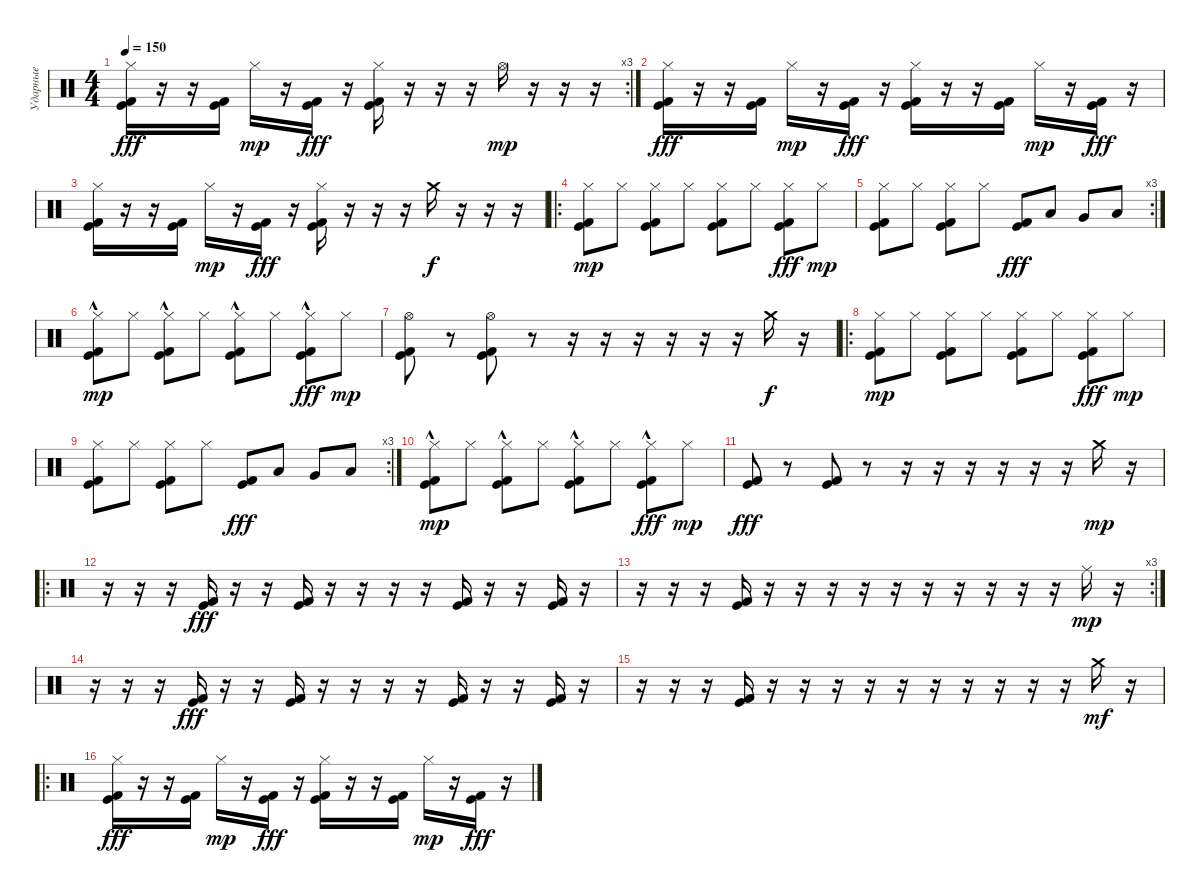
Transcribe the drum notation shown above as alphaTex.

\track ("Ударные" "Ударные") {instrument percussion}
\staff {score}
\articulation defaults
\rc 3
\ts (4 4)
\tempo 150
\clef neutral
\ks c
("Hi-Hat (closed)" "Kick (hit) 2" "Kick (hit)").16{dy fff} r.16 r.16 ("Kick (hit) 2" "Kick (hit)").16 "Hi-Hat (closed)".16{dy mp} r.16 ("Kick (hit) 2" "Kick (hit)").16{dy fff} r.16 ("Hi-Hat (closed)" "Kick (hit) 2" "Kick (hit)").16 r.16 r.16 r.16 "Hi-Hat (open)".16{dy mp} r.16 r.16 r.16 |
("Hi-Hat (closed)" "Kick (hit) 2" "Kick (hit)").16{dy fff} r.16 r.16 ("Kick (hit) 2" "Kick (hit)").16 "Hi-Hat (closed)".16{dy mp} r.16 ("Kick (hit) 2" "Kick (hit)").16{dy fff} r.16 ("Hi-Hat (closed)" "Kick (hit) 2" "Kick (hit)").16 r.16 r.16 ("Kick (hit) 2" "Kick (hit)").16 "Hi-Hat (closed)".16{dy mp} r.16 ("Kick (hit) 2" "Kick (hit)").16{dy fff} r.16 |
("Hi-Hat (closed)" "Kick (hit) 2" "Kick (hit)").16 r.16 r.16 ("Kick (hit) 2" "Kick (hit)").16 "Hi-Hat (closed)".16{dy mp} r.16 ("Kick (hit) 2" "Kick (hit)").16{dy fff} r.16 ("Hi-Hat (closed)" "Kick (hit) 2" "Kick (hit)").16 r.16 r.16 r.16 "Crash medium (hit)".16{dy f} r.16 r.16 r.16 |
\ro
("Kick (hit) 2" "Kick (hit)" "Hi-Hat (closed)").8{dy mp} "Hi-Hat (closed)".8 ("Kick (hit)" "Kick (hit) 2" "Hi-Hat (closed)").8 "Hi-Hat (closed)".8 ("Kick (hit) 2" "Kick (hit)" "Hi-Hat (closed)").8 "Hi-Hat (closed)".8 ("Hi-Hat (closed)" "Kick (hit)" "Kick (hit) 2").8{dy fff} "Hi-Hat (closed)".8{dy mp} |
\rc 3
("Kick (hit) 2" "Kick (hit)" "Hi-Hat (closed)").8 "Hi-Hat (closed)".8 ("Kick (hit)" "Kick (hit) 2" "Hi-Hat (closed)").8 "Hi-Hat (closed)".8 ("Kick (hit) 2" "Kick (hit)").8{dy fff} "Low Floor Tom (hit)".8 "Very Low Tom (hit)".8 "Low Tom (hit)".8 |
("Kick (hit) 2"{hac} "Kick (hit)"{hac} "Hi-Hat (closed)").8{dy mp} "Hi-Hat (closed)".8 ("Kick (hit)"{hac} "Kick (hit) 2"{hac} "Hi-Hat (closed)").8 "Hi-Hat (closed)".8 ("Kick (hit) 2"{hac} "Kick (hit)"{hac} "Hi-Hat (closed)").8 "Hi-Hat (closed)".8 ("Hi-Hat (closed)" "Kick (hit)"{hac} "Kick (hit) 2"{hac}).8{dy fff} "Hi-Hat (closed)".8{dy mp} |
("Kick (hit) 2" "Kick (hit)" "Hi-Hat (open)").8 r.8 ("Kick (hit)" "Kick (hit) 2" "Hi-Hat (open)").8 r.8 r.16 r.16 r.16 r.16 r.16 r.16 "Crash medium (hit)".16{dy f} r.16 |
\ro
("Kick (hit) 2" "Kick (hit)" "Hi-Hat (closed)").8{dy mp} "Hi-Hat (closed)".8 ("Kick (hit)" "Kick (hit) 2" "Hi-Hat (closed)").8 "Hi-Hat (closed)".8 ("Kick (hit) 2" "Kick (hit)" "Hi-Hat (closed)").8 "Hi-Hat (closed)".8 ("Hi-Hat (closed)" "Kick (hit)" "Kick (hit) 2").8{dy fff} "Hi-Hat (closed)".8{dy mp} |
\rc 3
("Kick (hit) 2" "Kick (hit)" "Hi-Hat (closed)").8 "Hi-Hat (closed)".8 ("Kick (hit)" "Kick (hit) 2" "Hi-Hat (closed)").8 "Hi-Hat (closed)".8 ("Kick (hit) 2" "Kick (hit)").8{dy fff} "Low Floor Tom (hit)".8 "Very Low Tom (hit)".8 "Low Tom (hit)".8 |
("Kick (hit) 2"{hac} "Kick (hit)"{hac} "Hi-Hat (closed)").8{dy mp} "Hi-Hat (closed)".8 ("Kick (hit)"{hac} "Kick (hit) 2"{hac} "Hi-Hat (closed)").8 "Hi-Hat (closed)".8 ("Kick (hit) 2"{hac} "Kick (hit)"{hac} "Hi-Hat (closed)").8 "Hi-Hat (closed)".8 ("Hi-Hat (closed)" "Kick (hit)"{hac} "Kick (hit) 2"{hac}).8{dy fff} "Hi-Hat (closed)".8{dy mp} |
("Kick (hit) 2" "Kick (hit)").8{dy fff} r.8 ("Kick (hit)" "Kick (hit) 2").8 r.8 r.16 r.16 r.16 r.16 r.16 r.16 "Crash medium (hit)".16{dy mp} r.16 |
\ro
r.16 r.16 r.16 ("Kick (hit) 2" "Kick (hit)").16{dy fff} r.16 r.16 ("Kick (hit) 2" "Kick (hit)").16 r.16 r.16 r.16 r.16 ("Kick (hit) 2" "Kick (hit)").16 r.16 r.16 ("Kick (hit)" "Kick (hit) 2").16 r.16 |
\rc 3
r.16 r.16 r.16 ("Kick (hit) 2" "Kick (hit)").16 r.16 r.16 r.16 r.16 r.16 r.16 r.16 r.16 r.16 r.16 "Ride (middle)".16{dy mp} r.16 |
r.16 r.16 r.16 ("Kick (hit) 2" "Kick (hit)").16{dy fff} r.16 r.16 ("Kick (hit) 2" "Kick (hit)").16 r.16 r.16 r.16 r.16 ("Kick (hit) 2" "Kick (hit)").16 r.16 r.16 ("Kick (hit)" "Kick (hit) 2").16 r.16 |
r.16 r.16 r.16 ("Kick (hit) 2" "Kick (hit)").16 r.16 r.16 r.16 r.16 r.16 r.16 r.16 r.16 r.16 r.16 "Crash medium (hit)".16{dy mf} r.16 |
\ro
("Hi-Hat (closed)" "Kick (hit) 2" "Kick (hit)").16{dy fff} r.16 r.16 ("Kick (hit) 2" "Kick (hit)").16 "Hi-Hat (closed)".16{dy mp} r.16 ("Kick (hit) 2" "Kick (hit)").16{dy fff} r.16 ("Hi-Hat (closed)" "Kick (hit) 2" "Kick (hit)").16 r.16 r.16 ("Kick (hit) 2" "Kick (hit)").16 "Hi-Hat (closed)".16{dy mp} r.16 ("Kick (hit) 2" "Kick (hit)").16{dy fff} r.16
